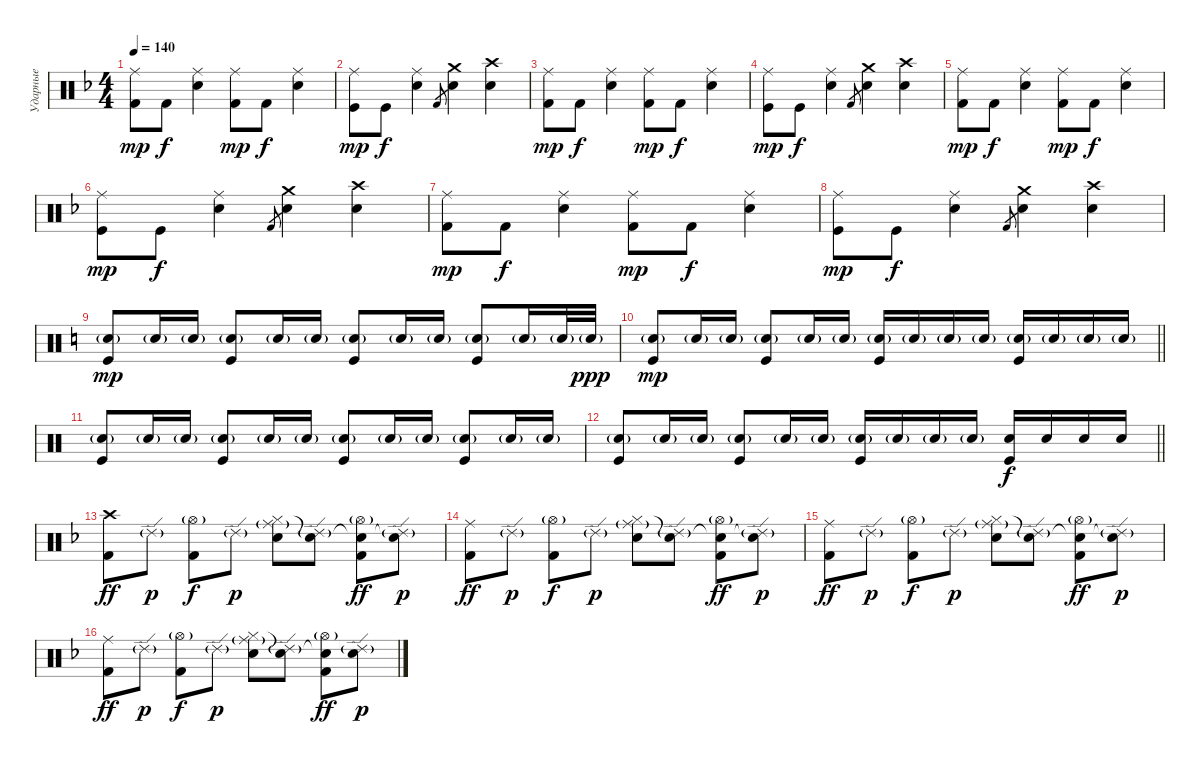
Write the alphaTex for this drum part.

\track ("Ударные" "Ударные") {instrument percussion}
\staff {score}
\articulation defaults
\ts (4 4)
\tempo 140
\clef neutral
\ks f
("Ride (middle)" "Kick (hit) 2").8{dy mp} "Kick (hit) 2".8{dy f} ("Ride (middle)" "Snare (hit) 2").4 ("Ride (middle)" "Kick (hit) 2").8{dy mp} "Kick (hit) 2".8{dy f} ("Ride (middle)" "Snare (hit) 2").4 |
("Ride (middle)" "Kick (hit)").8{dy mp} "Kick (hit)".8{dy f} ("Ride (middle)" "Snare (hit) 2").4 "Kick (hit) 2".8{gr} ("Crash medium (hit)" "Snare (hit) 2").4 ("Crash high (hit)" "Snare (hit) 2").4 |
("Ride (middle)" "Kick (hit) 2").8{dy mp} "Kick (hit) 2".8{dy f} ("Ride (middle)" "Snare (hit) 2").4 ("Ride (middle)" "Kick (hit) 2").8{dy mp} "Kick (hit) 2".8{dy f} ("Ride (middle)" "Snare (hit) 2").4 |
("Ride (middle)" "Kick (hit)").8{dy mp} "Kick (hit)".8{dy f} ("Ride (middle)" "Snare (hit) 2").4 "Kick (hit) 2".8{gr} ("Crash medium (hit)" "Snare (hit) 2").4 ("Crash high (hit)" "Snare (hit) 2").4 |
("Ride (middle)" "Kick (hit) 2").8{dy mp} "Kick (hit) 2".8{dy f} ("Ride (middle)" "Snare (hit) 2").4 ("Ride (middle)" "Kick (hit) 2").8{dy mp} "Kick (hit) 2".8{dy f} ("Ride (middle)" "Snare (hit) 2").4 |
("Ride (middle)" "Kick (hit)").8{dy mp} "Kick (hit)".8{dy f} ("Ride (middle)" "Snare (hit) 2").4 "Kick (hit) 2".8{gr} ("Crash medium (hit)" "Snare (hit) 2").4 ("Crash high (hit)" "Snare (hit) 2").4 |
("Ride (middle)" "Kick (hit) 2").8{dy mp} "Kick (hit) 2".8{dy f} ("Ride (middle)" "Snare (hit) 2").4 ("Ride (middle)" "Kick (hit) 2").8{dy mp} "Kick (hit) 2".8{dy f} ("Ride (middle)" "Snare (hit) 2").4 |
("Ride (middle)" "Kick (hit)").8{dy mp} "Kick (hit)".8{dy f} ("Ride (middle)" "Snare (hit) 2").4 "Kick (hit) 2".8{gr} ("Crash medium (hit)" "Snare (hit) 2").4 ("Crash high (hit)" "Snare (hit) 2").4 |
\ks c
("Electric Snare (hit)"{g} "Kick (hit)").8{dy mp} "Electric Snare (hit)"{g}.16 "Electric Snare (hit)"{g}.16 ("Electric Snare (hit)"{g} "Kick (hit)").8 "Electric Snare (hit)"{g}.16 "Electric Snare (hit)"{g}.16 ("Electric Snare (hit)"{g} "Kick (hit)").8 "Electric Snare (hit)"{g}.16 "Electric Snare (hit)"{g}.16 ("Electric Snare (hit)"{g} "Kick (hit)").8 "Electric Snare (hit)"{g}.16 "Electric Snare (hit)"{g}.32 "Electric Snare (hit)"{g}.32{dy ppp} |
\barLineRight lightlight
("Electric Snare (hit)"{g} "Kick (hit)").8{dy mp} "Electric Snare (hit)"{g}.16 "Electric Snare (hit)"{g}.16 ("Electric Snare (hit)"{g} "Kick (hit)").8 "Electric Snare (hit)"{g}.16 "Electric Snare (hit)"{g}.16 ("Electric Snare (hit)"{g} "Kick (hit)").16 "Electric Snare (hit)"{g}.16 "Electric Snare (hit)"{g}.16 "Electric Snare (hit)"{g}.16 ("Electric Snare (hit)"{g} "Kick (hit)").16 "Electric Snare (hit)"{g}.16 "Electric Snare (hit)"{g}.16 "Electric Snare (hit)"{g}.16 |
("Electric Snare (hit)"{g} "Kick (hit)").8 "Electric Snare (hit)"{g}.16 "Electric Snare (hit)"{g}.16 ("Electric Snare (hit)"{g} "Kick (hit)").8 "Electric Snare (hit)"{g}.16 "Electric Snare (hit)"{g}.16 ("Electric Snare (hit)"{g} "Kick (hit)").8 "Electric Snare (hit)"{g}.16 "Electric Snare (hit)"{g}.16 ("Electric Snare (hit)"{g} "Kick (hit)").8 "Electric Snare (hit)"{g}.16 "Electric Snare (hit)"{g}.16 |
\barLineRight lightlight
("Electric Snare (hit)"{g} "Kick (hit)").8 "Electric Snare (hit)"{g}.16 "Electric Snare (hit)"{g}.16 ("Electric Snare (hit)"{g} "Kick (hit)").8 "Electric Snare (hit)"{g}.16 "Electric Snare (hit)"{g}.16 ("Electric Snare (hit)"{g} "Kick (hit)").16 "Electric Snare (hit)"{g}.16 "Electric Snare (hit)"{g}.16 "Electric Snare (hit)"{g}.16 ("Electric Snare (hit)" "Kick (hit)").16{dy f} "Electric Snare (hit)".16 "Electric Snare (hit)".16 "Electric Snare (hit)".16 |
\ks f
("Crash high (hit)" "Kick (hit) 2").8{dy ff} "Ride (edge) 2"{g}.8{dy p} ("Hi-Hat (open)"{g} "Kick (hit) 2").8{dy f} "Ride (edge) 2"{g}.8{dy p} ("Ride (middle)"{g} "Hi-Hat (closed)" "Electric Snare (hit)").8 ("Ride (edge) 2"{g} "Snare (hit)"{t}).8 ("Hi-Hat (open)"{g} "Snare (hit)"{t} "Kick (hit) 2").8{dy ff} ("Ride (edge) 2"{g} "Snare (hit)"{t}).8{dy p} |
("Ride (middle)" "Kick (hit) 2").8{dy ff} "Ride (edge) 2"{g}.8{dy p} ("Hi-Hat (open)"{g} "Kick (hit) 2").8{dy f} "Ride (edge) 2"{g}.8{dy p} ("Ride (middle)"{g} "Hi-Hat (closed)" "Electric Snare (hit)").8 ("Ride (edge) 2"{g} "Snare (hit)"{t}).8 ("Hi-Hat (open)"{g} "Snare (hit)"{t} "Kick (hit) 2").8{dy ff} ("Ride (edge) 2"{g} "Snare (hit)"{t}).8{dy p} |
("Ride (middle)" "Kick (hit) 2").8{dy ff} "Ride (edge) 2"{g}.8{dy p} ("Hi-Hat (open)"{g} "Kick (hit) 2").8{dy f} "Ride (edge) 2"{g}.8{dy p} ("Ride (middle)"{g} "Hi-Hat (closed)" "Electric Snare (hit)").8 ("Ride (edge) 2"{g} "Snare (hit)"{t}).8 ("Hi-Hat (open)"{g} "Snare (hit)"{t} "Kick (hit) 2").8{dy ff} ("Ride (edge) 2"{g} "Snare (hit)"{t}).8{dy p} |
("Ride (middle)" "Kick (hit) 2").8{dy ff} "Ride (edge) 2"{g}.8{dy p} ("Hi-Hat (open)"{g} "Kick (hit) 2").8{dy f} "Ride (edge) 2"{g}.8{dy p} ("Ride (middle)"{g} "Hi-Hat (closed)" "Electric Snare (hit)").8 ("Ride (edge) 2"{g} "Snare (hit)"{t}).8 ("Hi-Hat (open)"{g} "Snare (hit)"{t} "Kick (hit) 2").8{dy ff} ("Ride (edge) 2"{g} "Snare (hit)"{t}).8{dy p}
